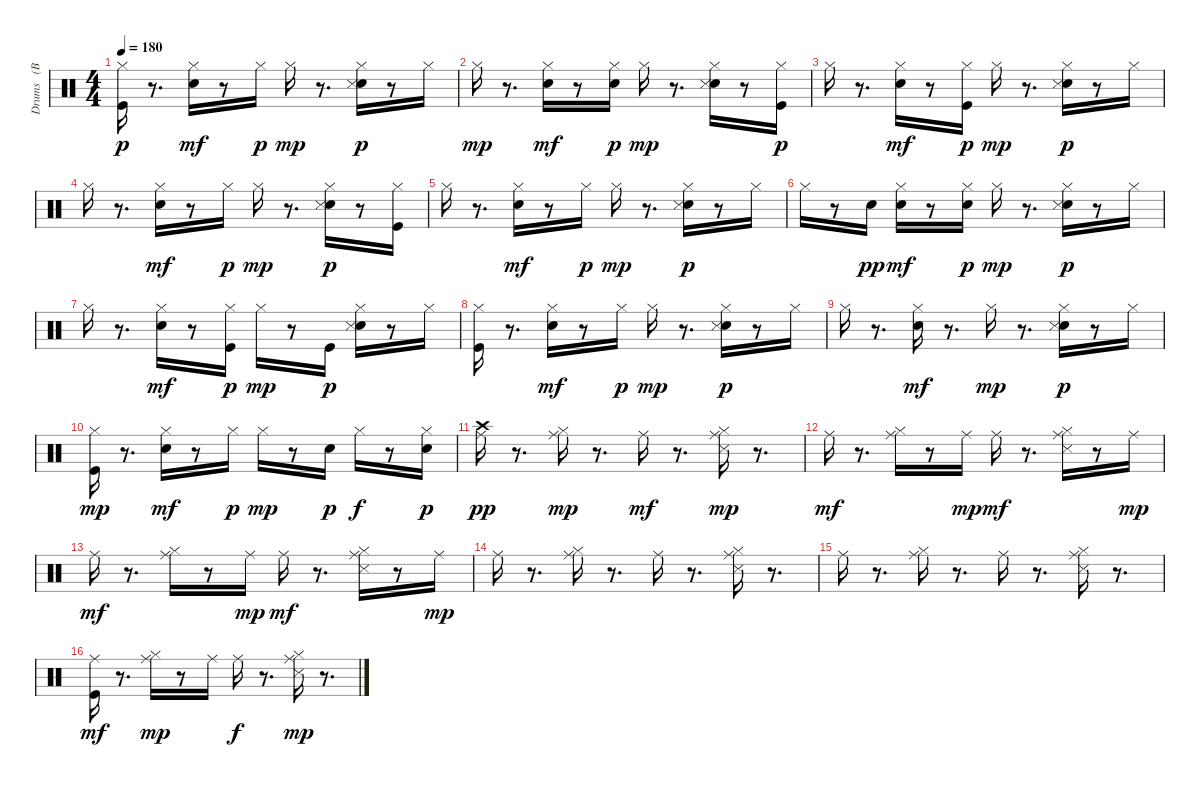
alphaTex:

\track ("Drums   (BB)" "Drums   (B") {instrument percussion}
\staff {score}
\articulation defaults
\ts (4 4)
\tempo 180
\clef neutral
\ks c
("Kick (hit)" "Hi-Hat (closed)").16{dy p} r.8{d} ("Snare (hit) 2" "Hi-Hat (closed)").16{dy mf} r.8 "Hi-Hat (closed)".16{dy p} "Hi-Hat (closed)".16{dy mp} r.8{d} ("Snare (hit) 2" "Hi-Hat (closed)" "Snare (side stick) 3").16{dy p} r.8 "Hi-Hat (closed)".16 |
"Hi-Hat (closed)".16{dy mp} r.8{d} ("Snare (hit) 2" "Hi-Hat (closed)").16{dy mf} r.8 ("Snare (hit) 2" "Hi-Hat (closed)").16{dy p} "Hi-Hat (closed)".16{dy mp} r.8{d} ("Snare (hit) 2" "Hi-Hat (closed)" "Snare (side stick) 3").16 r.8 ("Kick (hit)" "Hi-Hat (closed)").16{dy p} |
"Hi-Hat (closed)".16 r.8{d} ("Snare (hit) 2" "Hi-Hat (closed)").16{dy mf} r.8 ("Kick (hit)" "Hi-Hat (closed)").16{dy p} "Hi-Hat (closed)".16{dy mp} r.8{d} ("Snare (hit) 2" "Hi-Hat (closed)" "Snare (side stick) 3").16{dy p} r.8 "Hi-Hat (closed)".16 |
"Hi-Hat (closed)".16 r.8{d} ("Snare (hit) 2" "Hi-Hat (closed)").16{dy mf} r.8 "Hi-Hat (closed)".16{dy p} "Hi-Hat (closed)".16{dy mp} r.8{d} ("Snare (hit) 2" "Hi-Hat (closed)" "Snare (side stick) 3").16{dy p} r.8 ("Kick (hit)" "Hi-Hat (closed)").16 |
"Hi-Hat (closed)".16 r.8{d} ("Snare (hit) 2" "Hi-Hat (closed)").16{dy mf} r.8 "Hi-Hat (closed)".16{dy p} "Hi-Hat (closed)".16{dy mp} r.8{d} ("Snare (hit) 2" "Hi-Hat (closed)" "Snare (side stick) 3").16{dy p} r.8 "Hi-Hat (closed)".16 |
"Hi-Hat (closed)".16 r.8 "Snare (hit) 2".16{dy pp} ("Snare (hit) 2" "Hi-Hat (closed)").16{dy mf} r.8 ("Snare (hit) 2" "Hi-Hat (closed)").16{dy p} "Hi-Hat (closed)".16{dy mp} r.8{d} ("Snare (hit) 2" "Hi-Hat (closed)" "Snare (side stick) 3").16{dy p} r.8 "Hi-Hat (closed)".16 |
"Hi-Hat (closed)".16 r.8{d} ("Snare (hit) 2" "Hi-Hat (closed)").16{dy mf} r.8 ("Kick (hit)" "Hi-Hat (closed)").16{dy p} "Hi-Hat (closed)".16{dy mp} r.8 "Kick (hit)".16{dy p} ("Snare (hit) 2" "Hi-Hat (closed)" "Snare (side stick) 3").16 r.8 "Hi-Hat (closed)".16 |
("Kick (hit)" "Hi-Hat (closed)").16 r.8{d} ("Snare (hit) 2" "Hi-Hat (closed)").16{dy mf} r.8 "Hi-Hat (closed)".16{dy p} "Hi-Hat (closed)".16{dy mp} r.8{d} ("Snare (hit) 2" "Hi-Hat (closed)" "Snare (side stick) 3").16{dy p} r.8 "Hi-Hat (closed)".16 |
"Hi-Hat (closed)".16 r.8{d} ("Snare (hit) 2" "Hi-Hat (closed)").16{dy mf} r.8{d} "Hi-Hat (closed)".16{dy mp} r.8{d} ("Snare (hit) 2" "Hi-Hat (closed)" "Snare (side stick) 3").16{dy p} r.8 "Hi-Hat (closed)".16 |
("Kick (hit)" "Hi-Hat (closed)").16{dy mp} r.8{d} ("Snare (hit) 2" "Hi-Hat (closed)").16{dy mf} r.8 "Hi-Hat (closed)".16{dy p} "Hi-Hat (closed)".16{dy mp} r.8 "Snare (hit) 2".16{dy p} "Hi-Hat (closed)".16{dy f} r.8 ("Snare (hit) 2" "Hi-Hat (closed)").16{dy p} |
("Ride (middle)" "Crash high (hit)").16{dy pp} r.8{d} ("Hi-Hat (closed)" "Ride (middle)").16{dy mp} r.8{d} "Ride (middle)".16{dy mf} r.8{d} ("Hi-Hat (closed)" "Snare (side stick) 3" "Ride (middle)").16{dy mp} r.8{d} |
"Ride (middle)".16{dy mf} r.8{d} ("Hi-Hat (closed)" "Ride (middle)").16 r.8 "Ride (middle)".16{dy mp} "Ride (middle)".16{dy mf} r.8{d} ("Hi-Hat (closed)" "Snare (side stick) 3" "Ride (middle)").16 r.8 "Ride (middle)".16{dy mp} |
"Ride (middle)".16{dy mf} r.8{d} ("Hi-Hat (closed)" "Ride (middle)").16 r.8 "Ride (middle)".16{dy mp} "Ride (middle)".16{dy mf} r.8{d} ("Hi-Hat (closed)" "Snare (side stick) 3" "Ride (middle)").16 r.8 "Ride (middle)".16{dy mp} |
"Ride (middle)".16 r.8{d} ("Hi-Hat (closed)" "Ride (middle)").16 r.8{d} "Ride (middle)".16 r.8{d} ("Hi-Hat (closed)" "Snare (side stick) 3" "Ride (middle)").16 r.8{d} |
"Ride (middle)".16 r.8{d} ("Hi-Hat (closed)" "Ride (middle)").16 r.8{d} "Ride (middle)".16 r.8{d} ("Hi-Hat (closed)" "Snare (side stick) 3" "Ride (middle)").16 r.8{d} |
("Kick (hit)" "Ride (middle)").16{dy mf} r.8{d} ("Hi-Hat (closed)" "Ride (middle)").16{dy mp} r.8 "Ride (middle)".16 "Ride (middle)".16{dy f} r.8{d} ("Hi-Hat (closed)" "Snare (side stick) 3" "Ride (middle)").16{dy mp} r.8{d}
